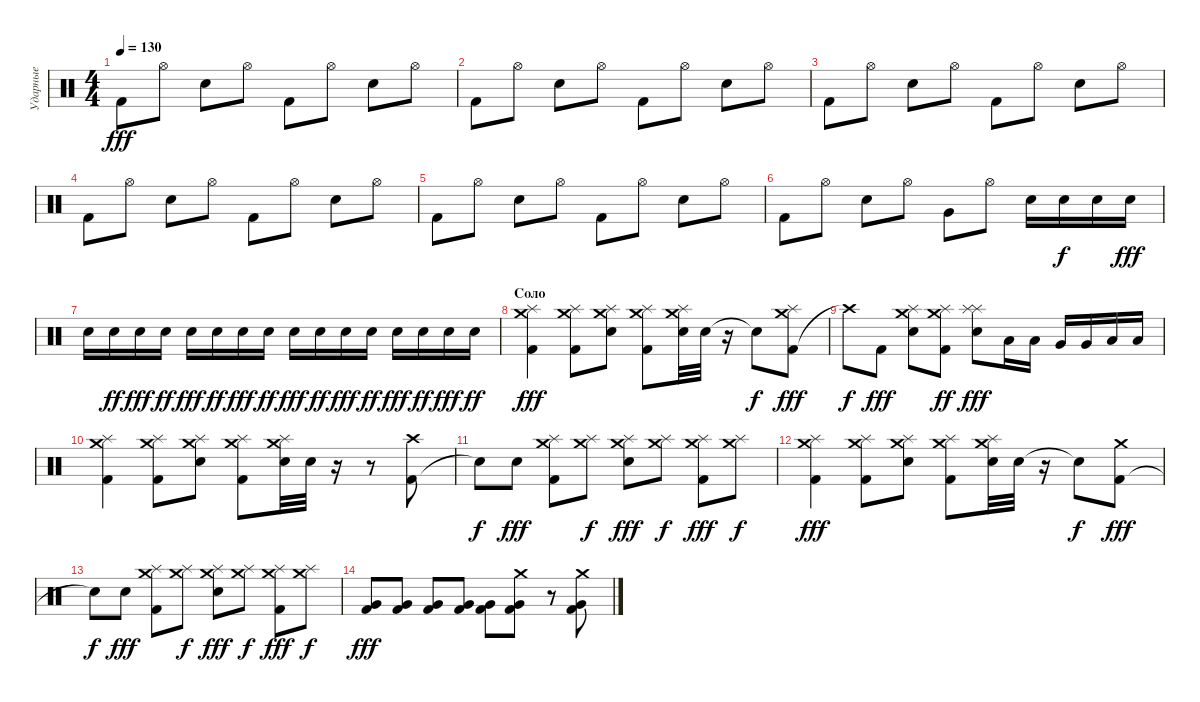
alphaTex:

\track ("Ударные" "Ударные") {instrument percussion}
\staff {score}
\articulation defaults
\ts (4 4)
\tempo 130
\clef neutral
\ks c "Kick (hit) 2".8{dy fff} "Hi-Hat (open)".8 "Snare (hit) 2".8 "Hi-Hat (open)".8 "Kick (hit) 2".8 "Hi-Hat (open)".8 "Snare (hit) 2".8 "Hi-Hat (open)".8
|
"Kick (hit) 2".8 "Hi-Hat (open)".8 "Snare (hit) 2".8 "Hi-Hat (open)".8 "Kick (hit) 2".8 "Hi-Hat (open)".8 "Snare (hit) 2".8 "Hi-Hat (open)".8 |
"Kick (hit) 2".8 "Hi-Hat (open)".8 "Snare (hit) 2".8 "Hi-Hat (open)".8 "Kick (hit) 2".8 "Hi-Hat (open)".8 "Snare (hit) 2".8 "Hi-Hat (open)".8 |
"Kick (hit) 2".8 "Hi-Hat (open)".8 "Snare (hit) 2".8 "Hi-Hat (open)".8 "Kick (hit) 2".8 "Hi-Hat (open)".8 "Snare (hit) 2".8 "Hi-Hat (open)".8 |
"Kick (hit) 2".8 "Hi-Hat (open)".8 "Snare (hit) 2".8 "Hi-Hat (open)".8 "Kick (hit) 2".8 "Hi-Hat (open)".8 "Snare (hit) 2".8 "Hi-Hat (open)".8 |
"Kick (hit) 2".8 "Hi-Hat (open)".8 "Snare (hit) 2".8 "Hi-Hat (open)".8 "Very Low Tom (hit)".8 "Hi-Hat (open)".8 "Snare (hit) 2".16 "Snare (hit) 2".16{dy f} "Snare (hit) 2".16 "Snare (hit) 2".16{dy fff} |
"Snare (hit) 2".16 "Snare (hit) 2".16{dy ff} "Snare (hit) 2".16{dy fff} "Snare (hit) 2".16{dy ff} "Snare (hit) 2".16{dy fff} "Snare (hit) 2".16{dy ff} "Snare (hit) 2".16{dy fff} "Snare (hit) 2".16{dy ff} "Snare (hit) 2".16{dy fff} "Snare (hit) 2".16{dy ff} "Snare (hit) 2".16{dy fff} "Snare (hit) 2".16{dy ff} "Snare (hit) 2".16{dy fff} "Snare (hit) 2".16{dy ff} "Snare (hit) 2".16{dy fff} "Snare (hit) 2".16{dy ff} |
\section ("" "Соло")
("Kick (hit) 2" "Crash medium (hit)" "Splash (hit)").4{dy fff} ("Kick (hit) 2" "Crash medium (hit)" "Splash (hit)").8 ("Snare (hit) 2" "Crash medium (hit)" "Splash (hit)").8 ("Kick (hit) 2" "Crash medium (hit)" "Splash (hit)").8 ("Snare (hit) 2" "Crash medium (hit)" "Splash (hit)").32 "Snare (hit) 2".32 r.16 "Snare (hit)"{t}.8{dy f} ("Kick (hit) 2" "Crash medium (hit)" "Splash (hit)").8{dy fff} |
"Crash high (hit)"{t}.8{dy f} "Kick (hit) 2".8{dy fff} ("Snare (hit) 2" "Crash medium (hit)" "Splash (hit)").8 ("Kick (hit) 2" "Crash medium (hit)" "Splash (hit)").8{dy ff} ("Snare (hit) 2" "Splash (hit)" "Splash (hit)").8{dy fff} "Low Tom (hit)".16 "Low Tom (hit)".16 "Very Low Tom (hit)".16 "Very Low Tom (hit)".16 "Low Floor Tom (hit)".16 "Low Floor Tom (hit)".16 |
("Kick (hit) 2" "Crash medium (hit)" "Splash (hit)").4 ("Kick (hit) 2" "Crash medium (hit)" "Splash (hit)").8 ("Snare (hit) 2" "Crash medium (hit)" "Splash (hit)").8 ("Kick (hit) 2" "Crash medium (hit)" "Splash (hit)").8 ("Snare (hit) 2" "Crash medium (hit)" "Splash (hit)").32 "Snare (hit) 2".32 r.16 r.8 ("Kick (hit) 2" "Crash high (hit)").8 |
"Snare (hit)"{t}.8{dy f} "Snare (hit) 2".8{dy fff} ("Kick (hit) 2" "Crash medium (hit)" "Splash (hit)").8 ("Crash medium (hit)" "Splash (hit)").8{dy f} ("Snare (hit) 2" "Crash medium (hit)" "Splash (hit)").8{dy fff} ("Crash medium (hit)" "Splash (hit)").8{dy f} ("Kick (hit) 2" "Crash medium (hit)" "Splash (hit)").8{dy fff} ("Crash medium (hit)" "Splash (hit)").8{dy f} |
("Kick (hit) 2" "Crash medium (hit)" "Splash (hit)").4{dy fff} ("Kick (hit) 2" "Crash medium (hit)" "Splash (hit)").8 ("Snare (hit) 2" "Crash medium (hit)" "Splash (hit)").8 ("Kick (hit) 2" "Crash medium (hit)" "Splash (hit)").8 ("Snare (hit) 2" "Crash medium (hit)" "Splash (hit)").32 "Snare (hit) 2".32 r.16 "Snare (hit)"{t}.8{dy f} ("Kick (hit) 2" "Crash medium (hit)").8{dy fff} |
"Snare (hit)"{t}.8{dy f} "Snare (hit) 2".8{dy fff} ("Kick (hit) 2" "Crash medium (hit)" "Splash (hit)").8 ("Crash medium (hit)" "Splash (hit)").8{dy f} ("Snare (hit) 2" "Crash medium (hit)" "Splash (hit)").8{dy fff} ("Crash medium (hit)" "Splash (hit)").8{dy f} ("Kick (hit) 2" "Crash medium (hit)" "Splash (hit)").8{dy fff} ("Crash medium (hit)" "Splash (hit)").8{dy f} |
("Very Low Tom (hit)" "Kick (hit) 2").8{dy fff} ("Very Low Tom (hit)" "Kick (hit) 2").8 ("Very Low Tom (hit)" "Kick (hit) 2").8 ("Very Low Tom (hit)" "Kick (hit) 2").8 ("Very Low Tom (hit)" "Kick (hit) 2").8 ("Very Low Tom (hit)" "Kick (hit) 2" "Crash medium (hit)").8 r.8 ("Very Low Tom (hit)" "Kick (hit) 2" "Crash medium (hit)").8
